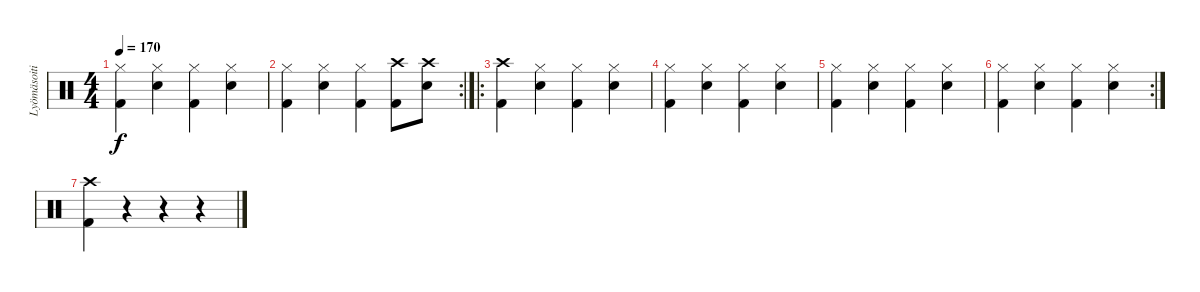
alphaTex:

\track ("Lyömäsoitin" "Lyömäsoiti") {instrument percussion}
\staff {score}
\articulation defaults
\ts (4 4)
\tempo 170
\clef neutral
\ks c
("Hi-Hat (closed)" "Kick (hit) 2").4{dy f} ("Hi-Hat (closed)" "Snare (hit) 2").4 ("Hi-Hat (closed)" "Kick (hit) 2").4 ("Hi-Hat (closed)" "Snare (hit) 2").4 |
\rc 2
("Hi-Hat (closed)" "Kick (hit) 2").4 ("Hi-Hat (closed)" "Snare (hit) 2").4 ("Hi-Hat (closed)" "Kick (hit) 2").4 ("Crash high (hit)" "Kick (hit) 2").8 ("Crash high (hit)" "Snare (hit) 2").8 |
\ro
("Crash high (hit)" "Kick (hit) 2").4 ("Hi-Hat (closed)" "Snare (hit) 2").4 ("Hi-Hat (closed)" "Kick (hit) 2").4 ("Hi-Hat (closed)" "Snare (hit) 2").4 |
("Hi-Hat (closed)" "Kick (hit) 2").4 ("Hi-Hat (closed)" "Snare (hit) 2").4 ("Hi-Hat (closed)" "Kick (hit) 2").4 ("Hi-Hat (closed)" "Snare (hit) 2").4 |
("Hi-Hat (closed)" "Kick (hit) 2").4 ("Hi-Hat (closed)" "Snare (hit) 2").4 ("Hi-Hat (closed)" "Kick (hit) 2").4 ("Hi-Hat (closed)" "Snare (hit) 2").4 |
\rc 2
("Hi-Hat (closed)" "Kick (hit) 2").4 ("Hi-Hat (closed)" "Snare (hit) 2").4 ("Hi-Hat (closed)" "Kick (hit) 2").4 ("Hi-Hat (closed)" "Snare (hit) 2").4 |
("Crash high (hit)" "Kick (hit) 2").4 r.4 r.4 r.4
